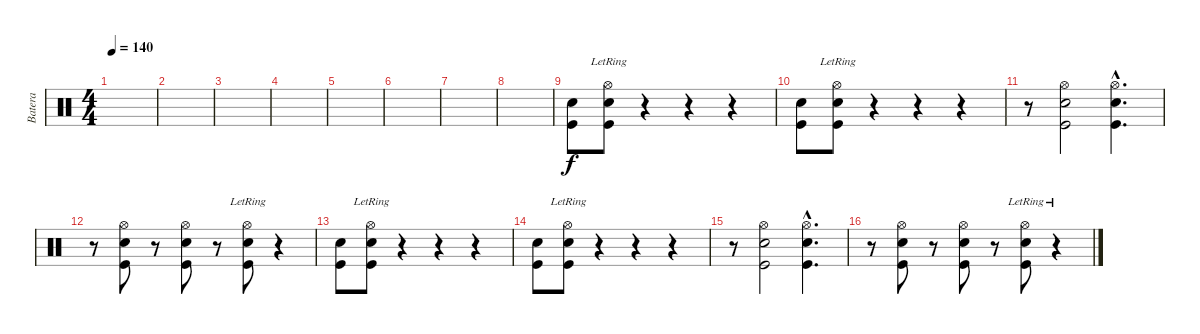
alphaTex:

\track ("Batera" "Batera") {instrument percussion}
\staff {score}
\articulation defaults
\ts (4 4)
\tempo 140
\clef neutral
\ks c
|
|
|
|
|
|
|
|
("Kick (hit)" "Snare (hit) 2").8 ("Kick (hit)" "Hi-Hat (open)"{lr} "Snare (hit) 2").8 r.4 r.4 r.4 |
("Kick (hit)" "Snare (hit) 2").8 ("Kick (hit)" "Hi-Hat (open)"{lr} "Snare (hit) 2").8 r.4 r.4 r.4 |
r.8 ("Hi-Hat (open)" "Kick (hit)" "Snare (hit) 2").2 ("Hi-Hat (open)"{hac} "Snare (hit) 2"{hac} "Kick (hit)"{hac}).4{d} |
r.8 ("Hi-Hat (open)" "Snare (hit) 2" "Kick (hit)").8 r.8 ("Hi-Hat (open)" "Snare (hit) 2" "Kick (hit)").8 r.8 ("Hi-Hat (open)"{lr} "Snare (hit) 2" "Kick (hit)").8 r.4 |
("Kick (hit)" "Snare (hit) 2").8 ("Kick (hit)" "Hi-Hat (open)"{lr} "Snare (hit) 2").8 r.4 r.4 r.4 |
("Kick (hit)" "Snare (hit) 2").8 ("Kick (hit)" "Hi-Hat (open)"{lr} "Snare (hit) 2").8 r.4 r.4 r.4 |
r.8 ("Hi-Hat (open)" "Kick (hit)" "Snare (hit) 2").2 ("Hi-Hat (open)"{hac} "Snare (hit) 2"{hac} "Kick (hit)"{hac}).4{d} |
r.8 ("Hi-Hat (open)" "Snare (hit) 2" "Kick (hit)").8 r.8 ("Hi-Hat (open)" "Snare (hit) 2" "Kick (hit)").8 r.8 ("Hi-Hat (open)"{lr} "Snare (hit) 2" "Kick (hit)").8 r.4
